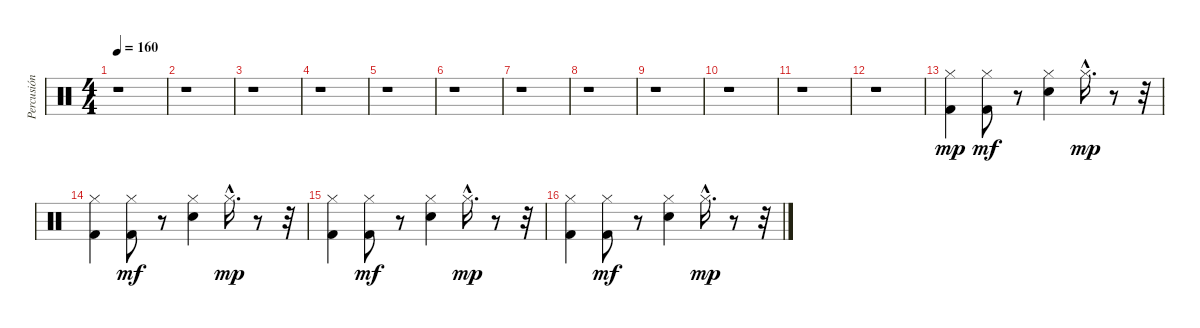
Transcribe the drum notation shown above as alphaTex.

\track ("Percusión" "Percusión") {instrument percussion}
\staff {score}
\articulation defaults
\ts (4 4)
\tempo 160
\clef neutral
\ks c
r.1{dy mp} |
r.1 |
r.1 |
r.1 |
r.1 |
r.1 |
r.1 |
r.1 |
r.1 |
r.1 |
r.1 |
r.1 |
("Hi-Hat (closed)" "Kick (hit) 2").4 ("Hi-Hat (closed)" "Kick (hit) 2").8{dy mf} r.8 ("Hi-Hat (closed)" "Electric Snare (hit)").4 "Hi-Hat (closed)"{hac}.16{d dy mp} r.8 r.32 |
("Hi-Hat (closed)" "Kick (hit) 2").4 ("Hi-Hat (closed)" "Kick (hit) 2").8{dy mf} r.8 ("Hi-Hat (closed)" "Electric Snare (hit)").4 "Hi-Hat (closed)"{hac}.16{d dy mp} r.8 r.32 |
("Hi-Hat (closed)" "Kick (hit) 2").4 ("Hi-Hat (closed)" "Kick (hit) 2").8{dy mf} r.8 ("Hi-Hat (closed)" "Electric Snare (hit)").4 "Hi-Hat (closed)"{hac}.16{d dy mp} r.8 r.32 |
("Hi-Hat (closed)" "Kick (hit) 2").4 ("Hi-Hat (closed)" "Kick (hit) 2").8{dy mf} r.8 ("Hi-Hat (closed)" "Electric Snare (hit)").4 "Hi-Hat (closed)"{hac}.16{d dy mp} r.8 r.32
